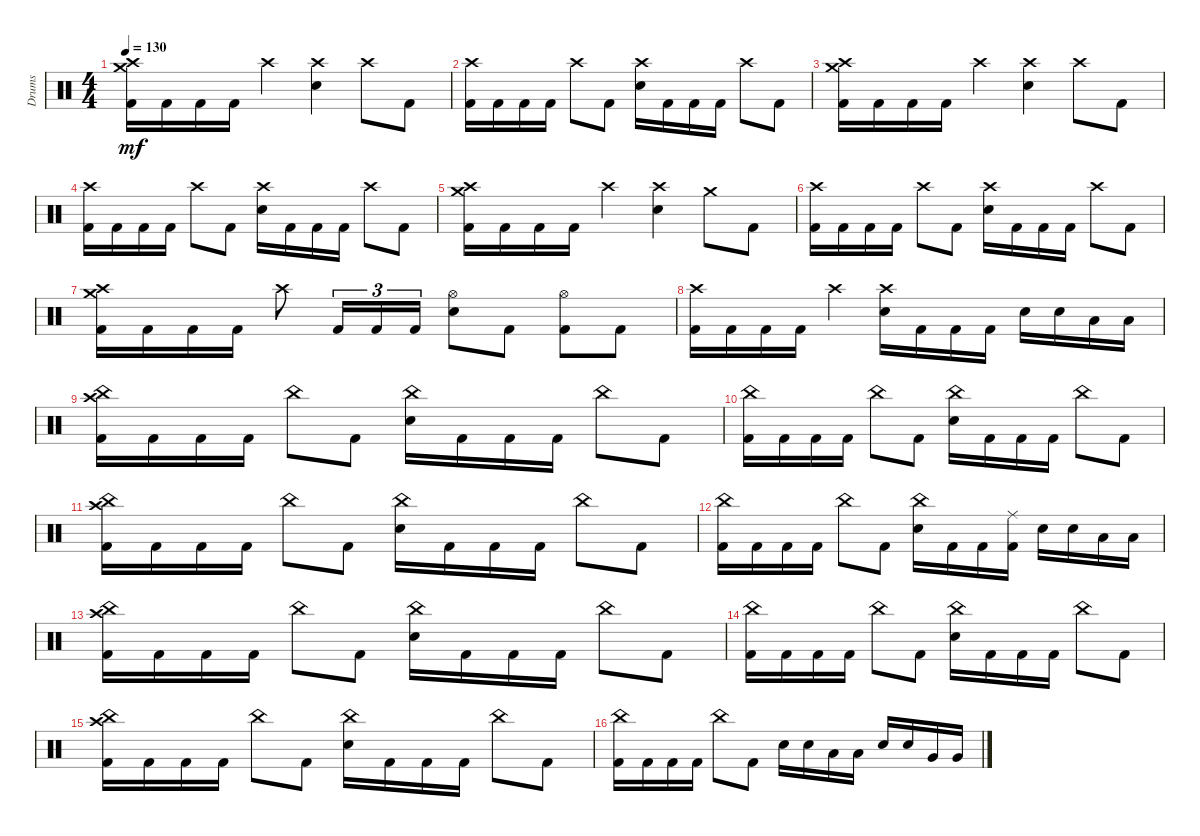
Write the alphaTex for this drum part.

\track ("Drums" "Drums") {instrument percussion}
\staff {score}
\articulation defaults
\ts (4 4)
\tempo 130
\clef neutral
\ks c
("Crash high (hit)" "Crash medium (hit)" "Kick (hit) 2").16{dy mf} "Kick (hit) 2".16 "Kick (hit) 2".16 "Kick (hit) 2".16 "Crash high (hit)".4 ("Crash high (hit)" "Electric Snare (hit)").4 "Crash high (hit)".8 "Kick (hit) 2".8 |
("Crash high (hit)" "Kick (hit) 2").16 "Kick (hit) 2".16 "Kick (hit) 2".16 "Kick (hit) 2".16 "Crash high (hit)".8 "Kick (hit) 2".8 ("Crash high (hit)" "Electric Snare (hit)").16 "Kick (hit) 2".16 "Kick (hit) 2".16 "Kick (hit) 2".16 "Crash high (hit)".8 "Kick (hit) 2".8 |
("Crash high (hit)" "Crash medium (hit)" "Kick (hit) 2").16 "Kick (hit) 2".16 "Kick (hit) 2".16 "Kick (hit) 2".16 "Crash high (hit)".4 ("Crash high (hit)" "Electric Snare (hit)").4 "Crash high (hit)".8 "Kick (hit) 2".8 |
("Crash high (hit)" "Kick (hit) 2").16 "Kick (hit) 2".16 "Kick (hit) 2".16 "Kick (hit) 2".16 "Crash high (hit)".8 "Kick (hit) 2".8 ("Crash high (hit)" "Electric Snare (hit)").16 "Kick (hit) 2".16 "Kick (hit) 2".16 "Kick (hit) 2".16 "Crash high (hit)".8 "Kick (hit) 2".8 |
("Crash high (hit)" "Crash medium (hit)" "Kick (hit) 2").16 "Kick (hit) 2".16 "Kick (hit) 2".16 "Kick (hit) 2".16 "Crash high (hit)".4 ("Crash high (hit)" "Electric Snare (hit)").4 "Crash medium (hit)".8 "Kick (hit) 2".8 |
("Crash high (hit)" "Kick (hit) 2").16 "Kick (hit) 2".16 "Kick (hit) 2".16 "Kick (hit) 2".16 "Crash high (hit)".8 "Kick (hit) 2".8 ("Crash high (hit)" "Electric Snare (hit)").16 "Kick (hit) 2".16 "Kick (hit) 2".16 "Kick (hit) 2".16 "Crash high (hit)".8 "Kick (hit) 2".8 |
("Crash high (hit)" "Crash medium (hit)" "Kick (hit) 2").16 "Kick (hit) 2".16 "Kick (hit) 2".16 "Kick (hit) 2".16 "Crash high (hit)".8 "Kick (hit) 2".16{tu (3 2)} "Kick (hit) 2".16{tu (3 2)} "Kick (hit) 2".16{tu (3 2)} ("Hi-Hat (open)" "Electric Snare (hit)").8 "Kick (hit) 2".8 ("Hi-Hat (open)" "Kick (hit) 2").8 "Kick (hit) 2".8 |
("Crash high (hit)" "Kick (hit) 2").16 "Kick (hit) 2".16 "Kick (hit) 2".16 "Kick (hit) 2".16 "Crash high (hit)".4 ("Crash high (hit)" "Electric Snare (hit)").16 "Kick (hit) 2".16 "Kick (hit) 2".16 "Kick (hit) 2".16 "Electric Snare (hit)".16 "Electric Snare (hit)".16 "Low Tom (hit)".16 "Low Tom (hit)".16 |
("China (hit)" "Crash high (hit)" "Kick (hit) 2").16 "Kick (hit) 2".16 "Kick (hit) 2".16 "Kick (hit) 2".16 "China (hit)".8 "Kick (hit) 2".8 ("China (hit)" "Electric Snare (hit)").16 "Kick (hit) 2".16 "Kick (hit) 2".16 "Kick (hit) 2".16 "China (hit)".8 "Kick (hit) 2".8 |
("China (hit)" "Kick (hit) 2").16 "Kick (hit) 2".16 "Kick (hit) 2".16 "Kick (hit) 2".16 "China (hit)".8 "Kick (hit) 2".8 ("China (hit)" "Electric Snare (hit)").16 "Kick (hit) 2".16 "Kick (hit) 2".16 "Kick (hit) 2".16 "China (hit)".8 "Kick (hit) 2".8 |
("China (hit)" "Crash high (hit)" "Kick (hit) 2").16 "Kick (hit) 2".16 "Kick (hit) 2".16 "Kick (hit) 2".16 "China (hit)".8 "Kick (hit) 2".8 ("China (hit)" "Electric Snare (hit)").16 "Kick (hit) 2".16 "Kick (hit) 2".16 "Kick (hit) 2".16 "China (hit)".8 "Kick (hit) 2".8 |
("China (hit)" "Kick (hit) 2").16 "Kick (hit) 2".16 "Kick (hit) 2".16 "Kick (hit) 2".16 "China (hit)".8 "Kick (hit) 2".8 ("China (hit)" "Electric Snare (hit)").16 "Kick (hit) 2".16 "Kick (hit) 2".16 ("Ride (middle)" "Kick (hit) 2").16 "Electric Snare (hit)".16 "Electric Snare (hit)".16 "Low Tom (hit)".16 "Low Tom (hit)".16 |
("China (hit)" "Crash high (hit)" "Kick (hit) 2").16 "Kick (hit) 2".16 "Kick (hit) 2".16 "Kick (hit) 2".16 "China (hit)".8 "Kick (hit) 2".8 ("China (hit)" "Electric Snare (hit)").16 "Kick (hit) 2".16 "Kick (hit) 2".16 "Kick (hit) 2".16 "China (hit)".8 "Kick (hit) 2".8 |
("China (hit)" "Kick (hit) 2").16 "Kick (hit) 2".16 "Kick (hit) 2".16 "Kick (hit) 2".16 "China (hit)".8 "Kick (hit) 2".8 ("China (hit)" "Electric Snare (hit)").16 "Kick (hit) 2".16 "Kick (hit) 2".16 "Kick (hit) 2".16 "China (hit)".8 "Kick (hit) 2".8 |
("China (hit)" "Crash high (hit)" "Kick (hit) 2").16 "Kick (hit) 2".16 "Kick (hit) 2".16 "Kick (hit) 2".16 "China (hit)".8 "Kick (hit) 2".8 ("China (hit)" "Electric Snare (hit)").16 "Kick (hit) 2".16 "Kick (hit) 2".16 "Kick (hit) 2".16 "China (hit)".8 "Kick (hit) 2".8 |
("China (hit)" "Kick (hit) 2").16 "Kick (hit) 2".16 "Kick (hit) 2".16 "Kick (hit) 2".16 "China (hit)".8 "Kick (hit) 2".8 "Electric Snare (hit)".16 "Electric Snare (hit)".16 "Low Tom (hit)".16 "Low Tom (hit)".16 "Electric Snare (hit)".16 "Electric Snare (hit)".16 "Very Low Tom (hit)".16 "Very Low Tom (hit)".16
